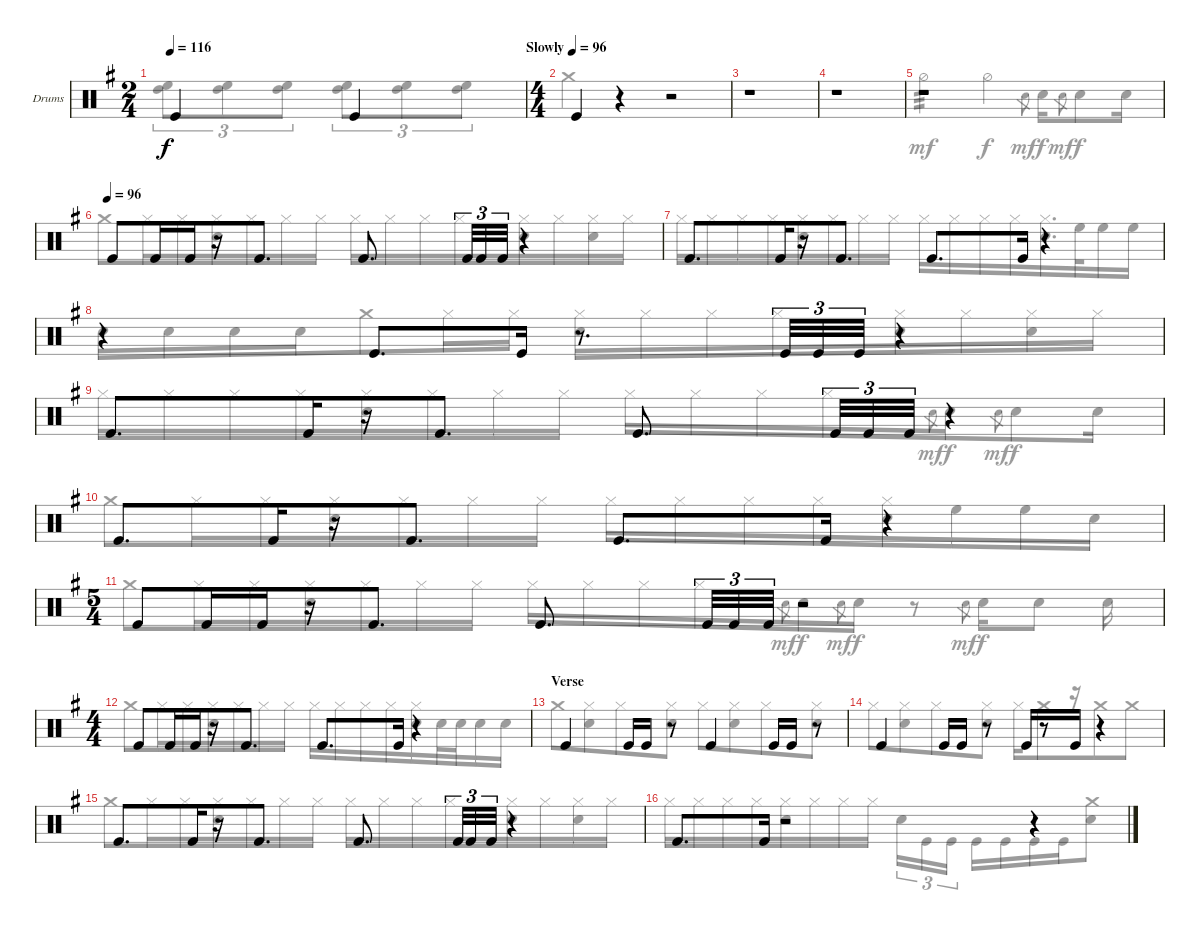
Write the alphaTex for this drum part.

\bracketExtendMode groupsimilarinstruments
\firstSystemTrackNameOrientation horizontal
\otherSystemsTrackNameOrientation horizontal
\track ("Drumkit" "Drums") {instrument percussion}
\staff {score}
\articulation defaults
\voice
\ts (2 4)
\beaming (8 4 4)
\tempo 116
\tempo (96 "Slowly" 1)
\clef neutral
\scale
1.07314
\ks g "Kick (hit)".4{dy f} "Kick (hit)".4
|
\ts (4 4)
\beaming (8 4 4)
\scale
0.92686 "Kick (hit)".4 r.4 r.2 |
\scale
1.04288 r.1 |
\scale
0.957125 r.1 |
\scale
1.04288 r.1 |
\tempo 96
\scale
0.957125 "Kick (hit)".8 "Kick (hit)".16 "Kick (hit)".16 r.16 "Kick (hit)".8{d} "Kick (hit)".8{d} "Kick (hit)".32{tu (3 2)} "Kick (hit)".32{tu (3 2)} "Kick (hit)".32{tu (3 2)} r.4 |
\scale
1.04288 "Kick (hit)".8{d} "Kick (hit)".16 r.16 "Kick (hit)".8{d} "Kick (hit)".8{d} "Kick (hit)".16 r.4 |
\scale
0.957125 r.4 "Kick (hit)".8{d} "Kick (hit)".16 r.8{d} "Kick (hit)".32{tu (3 2)} "Kick (hit)".32{tu (3 2)} "Kick (hit)".32{tu (3 2)} r.4 |
\scale
1.04288 "Kick (hit)".8{d} "Kick (hit)".16 r.16 "Kick (hit)".8{d} "Kick (hit)".8{d} "Kick (hit)".32{tu (3 2)} "Kick (hit)".32{tu (3 2)} "Kick (hit)".32{tu (3 2)} r.4 |
\scale
0.957125 "Kick (hit)".8{d} "Kick (hit)".16 r.16 "Kick (hit)".8{d} "Kick (hit)".8{d} "Kick (hit)".16 r.4 |
\ts (5 4)
\beaming (8 4 4)
\scale
1.07314 "Kick (hit)".8 "Kick (hit)".16 "Kick (hit)".16 r.16 "Kick (hit)".8{d} "Kick (hit)".8{d} "Kick (hit)".32{tu (3 2)} "Kick (hit)".32{tu (3 2)} "Kick (hit)".32{tu (3 2)} r.2 |
\ts (4 4)
\beaming (8 4 4)
\scale
0.92686 "Kick (hit)".8 "Kick (hit)".16 "Kick (hit)".16 r.16 "Kick (hit)".8{d} "Kick (hit)".8{d} "Kick (hit)".16 r.4 |
\section ("" "Verse")
\scale
1.04288 "Kick (hit)".4 "Kick (hit)".16 "Kick (hit)".16 r.8 "Kick (hit)".4 "Kick (hit)".16 "Kick (hit)".16 r.8 |
\scale
0.957125 "Kick (hit)".4 "Kick (hit)".16 "Kick (hit)".16 r.8 "Kick (hit)".16 r.8 "Kick (hit)".16 r.4 |
\scale
1.04288 "Kick (hit)".8{d} "Kick (hit)".16 r.16 "Kick (hit)".8{d} "Kick (hit)".8{d} "Kick (hit)".32{tu (3 2)} "Kick (hit)".32{tu (3 2)} "Kick (hit)".32{tu (3 2)} r.4 |
\scale
0.957125 "Kick (hit)".8{d} "Kick (hit)".16 r.2 r.4
\voice
\clef neutral
\ottava regular
\simile none
\scale
1.07314
\ks g
("High Tom (hit)" "High Floor Tom (hit)").8{tu (3 2) dy f} ("High Tom (hit)" "High Floor Tom (hit)").8{tu (3 2)} ("High Tom (hit)" "High Floor Tom (hit)").8{tu (3 2)} ("High Tom (hit)" "High Floor Tom (hit)").8{tu (3 2)} ("High Tom (hit)" "High Floor Tom (hit)").8{tu (3 2)} ("High Tom (hit)" "High Floor Tom (hit)").8{tu (3 2)} |
\scale
0.92686 "Crash medium (hit)".4 r.4 r.2 |
\scale
1.04288 r.1 |
\scale
0.957125 r.1 |
\scale
1.04288 "Hi-Hat (half)".2{tp 3 dy mf} "Hi-Hat (half)".4{dy f} "Snare (hit) 2".8{gr dy mf} "Snare (hit) 2".16{dy f} "Snare (hit) 2".8{gr dy mf} "Snare (hit) 2".8{dy f} "Snare (hit) 2".16 |
\scale
0.957125 "Crash medium (hit)".8 "Hi-Hat (closed)".16 "Hi-Hat (closed)".16 ("Hi-Hat (closed)" "Snare (hit) 2").16 "Hi-Hat (closed)".16 "Hi-Hat (closed)".16 "Hi-Hat (closed)".16 "Hi-Hat (closed)".16 "Hi-Hat (closed)".16 "Hi-Hat (closed)".16 "Hi-Hat (closed)".16 ("Hi-Hat (closed)" "Snare (hit) 2").16 "Hi-Hat (closed)".16 ("Hi-Hat (closed)" "Snare (hit) 2").16 "Hi-Hat (closed)".16 |
\scale
1.04288 "Hi-Hat (closed)".16 "Hi-Hat (closed)".16 "Hi-Hat (closed)".16 "Hi-Hat (closed)".16 ("Hi-Hat (closed)" "Snare (hit) 2").16 "Hi-Hat (closed)".16 "Hi-Hat (closed)".16 "Hi-Hat (closed)".16 "Hi-Hat (closed)".16 "Hi-Hat (closed)".16 "Hi-Hat (closed)".16 "Hi-Hat (closed)".16 ("Hi-Hat (closed)" "Snare (hit) 2").16{d} "High Floor Tom (hit)".32 "High Floor Tom (hit)".16 "High Floor Tom (hit)".16 |
\scale
0.957125 "Snare (hit) 2".16 "Snare (hit) 2".16 "Snare (hit) 2".16 "Snare (hit) 2".16 "Crash medium (hit)".8 "Hi-Hat (closed)".16 "Hi-Hat (closed)".16 ("Hi-Hat (closed)" "Snare (hit) 2").16 "Hi-Hat (closed)".16 "Hi-Hat (closed)".16 "Hi-Hat (closed)".16 ("Hi-Hat (closed)" "Snare (hit) 2").16 "Hi-Hat (closed)".16 ("Hi-Hat (closed)" "Snare (hit) 2").16 "Hi-Hat (closed)".16 |
\scale
1.04288 "Hi-Hat (closed)".16 "Hi-Hat (closed)".16 "Hi-Hat (closed)".16 "Hi-Hat (closed)".16 ("Hi-Hat (closed)" "Snare (hit) 2").16 "Hi-Hat (closed)".16 "Hi-Hat (closed)".16 "Hi-Hat (closed)".16 "Hi-Hat (closed)".16 "Hi-Hat (closed)".16 "Hi-Hat (closed)".16 "Hi-Hat (closed)".16 "Snare (hit) 2".8{gr dy mf} "Snare (hit) 2".16{dy f} "Snare (hit) 2".8{gr dy mf} "Snare (hit) 2".8{dy f} "Snare (hit) 2".16 |
\scale
0.957125 "Crash medium (hit)".8 "Hi-Hat (closed)".16 "Hi-Hat (closed)".16 ("Hi-Hat (closed)" "Snare (hit) 2").16 "Hi-Hat (closed)".16 "Hi-Hat (closed)".16 "Hi-Hat (closed)".16 "Hi-Hat (closed)".16 "Hi-Hat (closed)".16 "Hi-Hat (closed)".16 "Hi-Hat (closed)".16 ("Hi-Hat (closed)" "Snare (hit) 2").16 "High Floor Tom (hit)".16 "High Floor Tom (hit)".16 "Snare (hit) 2".16 |
\scale
1.07314 "Crash medium (hit)".8 "Hi-Hat (closed)".16 "Hi-Hat (closed)".16 ("Hi-Hat (closed)" "Snare (hit) 2").16 "Hi-Hat (closed)".16 "Hi-Hat (closed)".16 "Hi-Hat (closed)".16 "Hi-Hat (closed)".16 "Hi-Hat (closed)".16 "Hi-Hat (closed)".16 "Hi-Hat (closed)".16 "Snare (hit) 2".8{gr dy mf} "Snare (hit) 2".16{dy f} "Snare (hit) 2".8{gr dy mf} "Snare (hit) 2".16{dy f} r.8 "Snare (hit) 2".8{gr dy mf} "Snare (hit) 2".16{dy f} "Snare (hit) 2".8 "Snare (hit) 2".16 |
\scale
0.92686 "Crash medium (hit)".8 "Hi-Hat (closed)".16 "Hi-Hat (closed)".16 ("Hi-Hat (closed)" "Snare (hit) 2").16 "Hi-Hat (closed)".16 "Hi-Hat (closed)".16 "Hi-Hat (closed)".16 "Hi-Hat (closed)".16 "Hi-Hat (closed)".16 "Hi-Hat (closed)".16 "Hi-Hat (closed)".16 ("Hi-Hat (closed)" "Snare (hit) 2").16 "Snare (hit) 2".32 "Snare (hit) 2".32 "Snare (hit) 2".16 "Snare (hit) 2".16 |
\scale
1.04288 "Crash medium (hit)".8 ("Hi-Hat (closed)" "Snare (hit) 2").8 "Hi-Hat (closed)".8 ("Hi-Hat (closed)" "Snare (hit) 2").8 "Hi-Hat (closed)".8 ("Hi-Hat (closed)" "Snare (hit) 2").8 "Hi-Hat (closed)".8 ("Hi-Hat (closed)" "Snare (hit) 2").8 |
\scale
0.957125 "Hi-Hat (closed)".8 ("Hi-Hat (closed)" "Snare (hit) 2").8 "Hi-Hat (closed)".8 ("Hi-Hat (closed)" "Snare (hit) 2").8 "Hi-Hat (closed)".16 "Crash medium (hit)".8 r.16 "Crash medium (hit)".8 "Crash medium (hit)".8 |
\scale
1.04288 "Crash medium (hit)".8 "Hi-Hat (closed)".16 "Hi-Hat (closed)".16 ("Hi-Hat (closed)" "Snare (hit) 2").16 "Hi-Hat (closed)".16 "Hi-Hat (closed)".16 "Hi-Hat (closed)".16 "Hi-Hat (closed)".16 "Hi-Hat (closed)".16 "Hi-Hat (closed)".16 "Hi-Hat (closed)".16 ("Hi-Hat (closed)" "Snare (hit) 2").16 "Hi-Hat (closed)".16 ("Hi-Hat (closed)" "Snare (hit) 2").16 "Hi-Hat (closed)".16 |
\scale
0.957125 "Hi-Hat (closed)".16 "Hi-Hat (closed)".16 "Hi-Hat (closed)".16 "Hi-Hat (closed)".16 ("Hi-Hat (closed)" "Snare (hit) 2").16 "Hi-Hat (closed)".16 "Hi-Hat (closed)".16 "Hi-Hat (closed)".16 "Snare (hit) 2".16{tu (3 2)} "Kick (hit)".16{tu (3 2)} "Kick (hit)".16{tu (3 2)} "Kick (hit)".16 "Kick (hit)".16 "Kick (hit)".16 "Kick (hit)".16 ("Crash medium (hit)" "Snare (hit) 2").8
